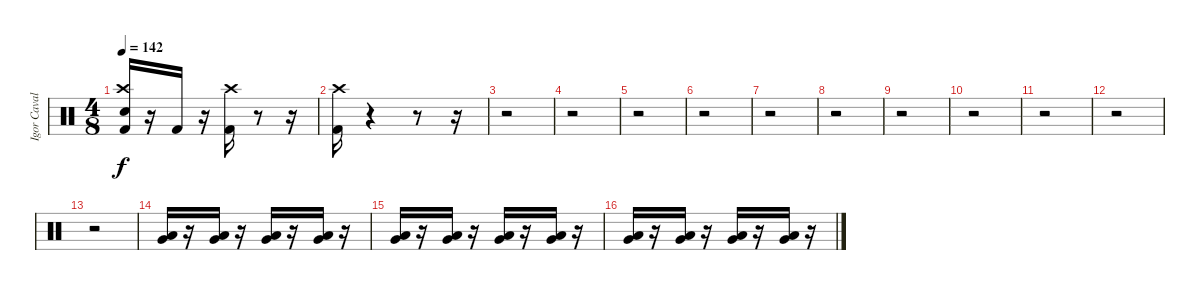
\track ("Igor Cavalera" "Igor Caval") {instrument percussion}
\staff {score}
\articulation defaults
\ts (4 8)
\tempo 142
\clef neutral
\ks c
("Kick (hit) 2" "Crash high (hit)" "Electric Snare (hit)").16{dy f} r.16 "Kick (hit) 2".16 r.16 ("Crash high (hit)" "Kick (hit) 2").16 r.8 r.16 |
("Kick (hit) 2" "Crash high (hit)").16 r.4 r.8 r.16 |
r.2 |
r.2 |
r.2 |
r.2 |
r.2 |
r.2 |
r.2 |
r.2 |
r.2 |
r.2 |
r.2 |
("Very Low Tom (hit)" "Low Tom (hit)").16 r.16 ("Low Tom (hit)" "Very Low Tom (hit)").16 r.16 ("Low Tom (hit)" "Very Low Tom (hit)").16 r.16 ("Low Tom (hit)" "Very Low Tom (hit)").16 r.16 |
("Low Tom (hit)" "Very Low Tom (hit)").16 r.16 ("Very Low Tom (hit)" "Low Tom (hit)").16 r.16 ("Low Tom (hit)" "Very Low Tom (hit)").16 r.16 ("Very Low Tom (hit)" "Low Tom (hit)").16 r.16 |
("Very Low Tom (hit)" "Low Tom (hit)").16 r.16 ("Low Tom (hit)" "Very Low Tom (hit)").16 r.16 ("Low Tom (hit)" "Very Low Tom (hit)").16 r.16 ("Low Tom (hit)" "Very Low Tom (hit)").16 r.16
